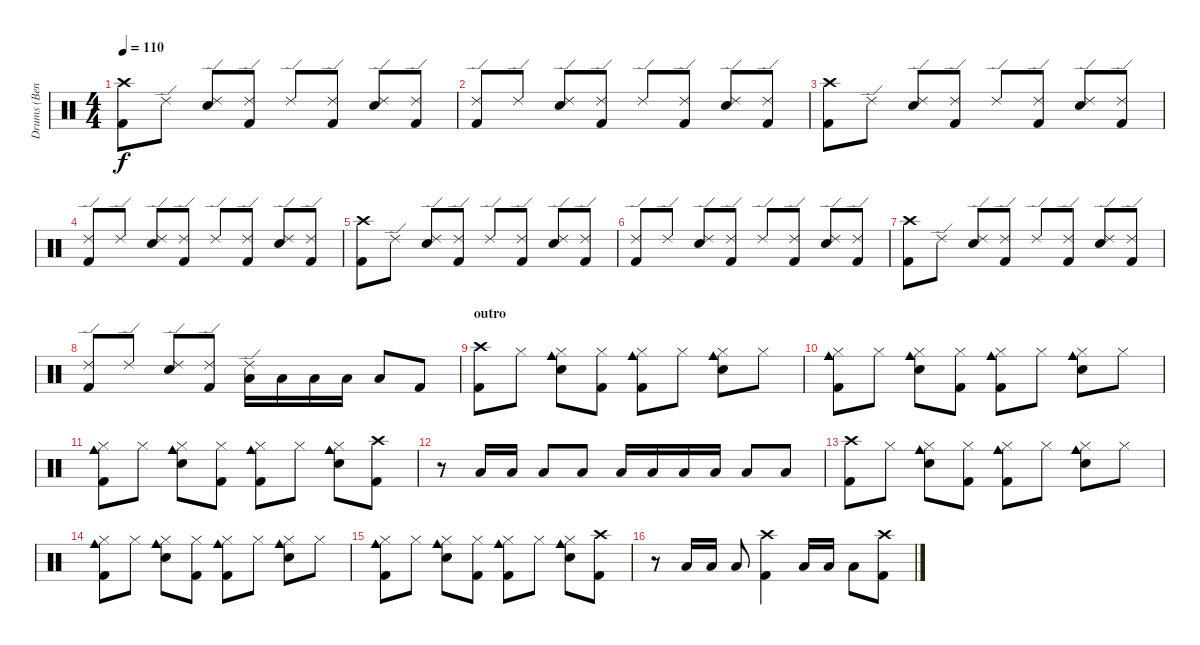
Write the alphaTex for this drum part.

\track ("Drums (Bengerg)" "Drums (Ben") {instrument percussion}
\staff {score}
\articulation defaults
\ts (4 4)
\tempo 110
\clef neutral
\ks c
("Crash high (hit)" "Kick (hit) 2").8{dy f} "Ride (edge) 2".8 ("Ride (edge) 2" "Electric Snare (hit)").8 ("Ride (edge) 2" "Kick (hit) 2").8 "Ride (edge) 2".8 ("Ride (edge) 2" "Kick (hit) 2").8 ("Ride (edge) 2" "Electric Snare (hit)").8 ("Ride (edge) 2" "Kick (hit) 2").8 |
("Ride (edge) 2" "Kick (hit) 2").8 "Ride (edge) 2".8 ("Ride (edge) 2" "Electric Snare (hit)").8 ("Ride (edge) 2" "Kick (hit) 2").8 "Ride (edge) 2".8 ("Ride (edge) 2" "Kick (hit) 2").8 ("Ride (edge) 2" "Electric Snare (hit)").8 ("Ride (edge) 2" "Kick (hit) 2").8 |
("Crash high (hit)" "Kick (hit) 2").8 "Ride (edge) 2".8 ("Ride (edge) 2" "Electric Snare (hit)").8 ("Ride (edge) 2" "Kick (hit) 2").8 "Ride (edge) 2".8 ("Ride (edge) 2" "Kick (hit) 2").8 ("Ride (edge) 2" "Electric Snare (hit)").8 ("Ride (edge) 2" "Kick (hit) 2").8 |
("Ride (edge) 2" "Kick (hit) 2").8 "Ride (edge) 2".8 ("Ride (edge) 2" "Electric Snare (hit)").8 ("Ride (edge) 2" "Kick (hit) 2").8 "Ride (edge) 2".8 ("Ride (edge) 2" "Kick (hit) 2").8 ("Ride (edge) 2" "Electric Snare (hit)").8 ("Ride (edge) 2" "Kick (hit) 2").8 |
("Crash high (hit)" "Kick (hit) 2").8 "Ride (edge) 2".8 ("Ride (edge) 2" "Electric Snare (hit)").8 ("Ride (edge) 2" "Kick (hit) 2").8 "Ride (edge) 2".8 ("Ride (edge) 2" "Kick (hit) 2").8 ("Ride (edge) 2" "Electric Snare (hit)").8 ("Ride (edge) 2" "Kick (hit) 2").8 |
("Ride (edge) 2" "Kick (hit) 2").8 "Ride (edge) 2".8 ("Ride (edge) 2" "Electric Snare (hit)").8 ("Ride (edge) 2" "Kick (hit) 2").8 "Ride (edge) 2".8 ("Ride (edge) 2" "Kick (hit) 2").8 ("Ride (edge) 2" "Electric Snare (hit)").8 ("Ride (edge) 2" "Kick (hit) 2").8 |
("Crash high (hit)" "Kick (hit) 2").8 "Ride (edge) 2".8 ("Ride (edge) 2" "Electric Snare (hit)").8 ("Ride (edge) 2" "Kick (hit) 2").8 "Ride (edge) 2".8 ("Ride (edge) 2" "Kick (hit) 2").8 ("Ride (edge) 2" "Electric Snare (hit)").8 ("Ride (edge) 2" "Kick (hit) 2").8 |
("Ride (edge) 2" "Kick (hit) 2").8 "Ride (edge) 2".8 ("Ride (edge) 2" "Electric Snare (hit)").8 ("Ride (edge) 2" "Kick (hit) 2").8 ("Ride (edge) 2" "Low Tom (hit)").16 "Low Tom (hit)".16 "Low Tom (hit)".16 "Low Tom (hit)".16 "Low Tom (hit)".8 "Kick (hit) 2".8 |
\section ("" "outro")
("Crash high (hit)" "Kick (hit) 2").8 "Hi-Hat (closed)".8 ("Hi-Hat (closed)" "Cowbell medium (hit)" "Electric Snare (hit)").8 ("Hi-Hat (closed)" "Kick (hit) 2").8 ("Hi-Hat (closed)" "Cowbell medium (hit)" "Kick (hit) 2").8 "Hi-Hat (closed)".8 ("Hi-Hat (closed)" "Cowbell medium (hit)" "Electric Snare (hit)").8 "Hi-Hat (closed)".8 |
("Hi-Hat (closed)" "Cowbell medium (hit)" "Kick (hit) 2").8 "Hi-Hat (closed)".8 ("Hi-Hat (closed)" "Cowbell medium (hit)" "Electric Snare (hit)").8 ("Hi-Hat (closed)" "Kick (hit) 2").8 ("Hi-Hat (closed)" "Cowbell medium (hit)" "Kick (hit) 2").8 "Hi-Hat (closed)".8 ("Hi-Hat (closed)" "Cowbell medium (hit)" "Electric Snare (hit)").8 "Hi-Hat (closed)".8 |
("Hi-Hat (closed)" "Cowbell medium (hit)" "Kick (hit) 2").8 "Hi-Hat (closed)".8 ("Hi-Hat (closed)" "Cowbell medium (hit)" "Electric Snare (hit)").8 ("Hi-Hat (closed)" "Kick (hit) 2").8 ("Hi-Hat (closed)" "Cowbell medium (hit)" "Kick (hit) 2").8 "Hi-Hat (closed)".8 ("Hi-Hat (closed)" "Cowbell medium (hit)" "Electric Snare (hit)").8 ("Crash high (hit)" "Kick (hit) 2").8 |
r.8 "Low Tom (hit)".16 "Low Tom (hit)".16 "Low Tom (hit)".8 "Low Tom (hit)".8 "Low Tom (hit)".16 "Low Tom (hit)".16 "Low Tom (hit)".16 "Low Tom (hit)".16 "Low Tom (hit)".8 "Low Tom (hit)".8 |
("Crash high (hit)" "Kick (hit) 2").8 "Hi-Hat (closed)".8 ("Hi-Hat (closed)" "Cowbell medium (hit)" "Electric Snare (hit)").8 ("Hi-Hat (closed)" "Kick (hit) 2").8 ("Hi-Hat (closed)" "Cowbell medium (hit)" "Kick (hit) 2").8 "Hi-Hat (closed)".8 ("Hi-Hat (closed)" "Cowbell medium (hit)" "Electric Snare (hit)").8 "Hi-Hat (closed)".8 |
("Hi-Hat (closed)" "Cowbell medium (hit)" "Kick (hit) 2").8 "Hi-Hat (closed)".8 ("Hi-Hat (closed)" "Cowbell medium (hit)" "Electric Snare (hit)").8 ("Hi-Hat (closed)" "Kick (hit) 2").8 ("Hi-Hat (closed)" "Cowbell medium (hit)" "Kick (hit) 2").8 "Hi-Hat (closed)".8 ("Hi-Hat (closed)" "Cowbell medium (hit)" "Electric Snare (hit)").8 "Hi-Hat (closed)".8 |
("Hi-Hat (closed)" "Cowbell medium (hit)" "Kick (hit) 2").8 "Hi-Hat (closed)".8 ("Hi-Hat (closed)" "Cowbell medium (hit)" "Electric Snare (hit)").8 ("Hi-Hat (closed)" "Kick (hit) 2").8 ("Hi-Hat (closed)" "Cowbell medium (hit)" "Kick (hit) 2").8 "Hi-Hat (closed)".8 ("Hi-Hat (closed)" "Cowbell medium (hit)" "Electric Snare (hit)").8 ("Crash high (hit)" "Kick (hit) 2").8 |
r.8 "Low Tom (hit)".16 "Low Tom (hit)".16 "Low Tom (hit)".8 ("Crash high (hit)" "Kick (hit) 2").4 "Low Tom (hit)".16 "Low Tom (hit)".16 "Low Tom (hit)".8 ("Crash high (hit)" "Kick (hit) 2").8
